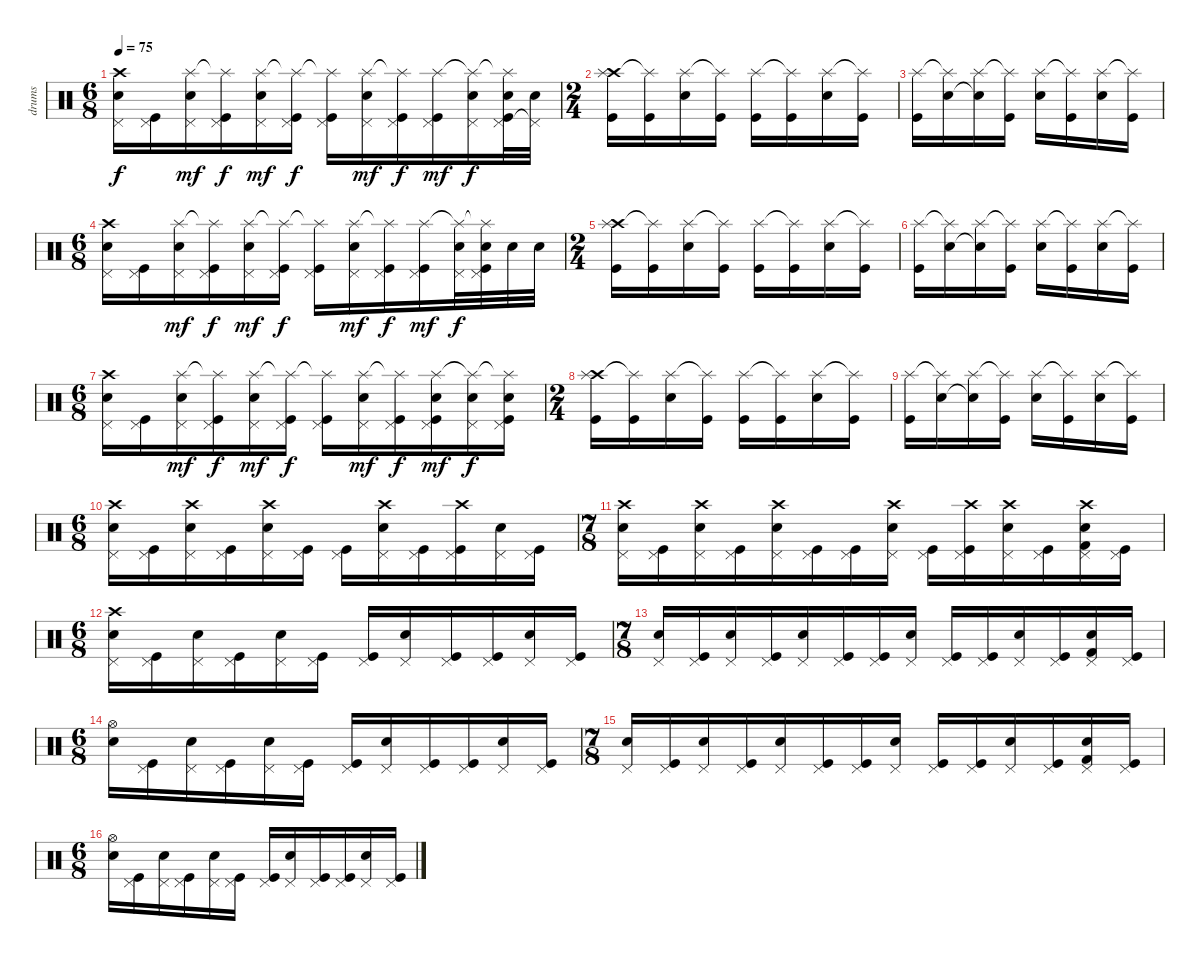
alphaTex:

\track ("drums" "drums") {instrument percussion}
\staff {score}
\articulation defaults
\ts (6 8)
\tempo 75
\clef neutral
\ks c
("Pedal Hi-Hat (hit)" "Electric Snare (hit)" "Crash high (hit)").16{dy f} ("Pedal Hi-Hat (hit)" "Kick (hit)").16 ("Pedal Hi-Hat (hit)" "Splash (hit)" "Electric Snare (hit)").16{dy mf} ("Pedal Hi-Hat (hit)" "Splash (hit)"{t} "Kick (hit)").16{dy f} ("Pedal Hi-Hat (hit)" "Splash (hit)" "Electric Snare (hit)").16{dy mf} ("Pedal Hi-Hat (hit)" "Splash (hit)"{t} "Kick (hit)").16{dy f} ("Pedal Hi-Hat (hit)" "Splash (hit)"{t} "Kick (hit)").16 ("Pedal Hi-Hat (hit)" "Splash (hit)" "Electric Snare (hit)").16{dy mf} ("Pedal Hi-Hat (hit)" "Splash (hit)"{t} "Kick (hit)").16{dy f} ("Pedal Hi-Hat (hit)" "Splash (hit)" "Kick (hit)").16{dy mf} ("Pedal Hi-Hat (hit)" "Splash (hit)"{t} "Electric Snare (hit)").16{dy f} ("Pedal Hi-Hat (hit)" "Splash (hit)"{t} "Electric Snare (hit)" "Kick (hit)").32 ("Pedal Hi-Hat (hit)"{t} "Electric Snare (hit)").32 |
\ts (2 4)
("Crash high (hit)" "Splash (hit)" "Kick (hit)").16 ("Splash (hit)"{t} "Kick (hit)").16 ("Splash (hit)" "Electric Snare (hit)").16 ("Splash (hit)"{t} "Kick (hit)").16 ("Splash (hit)" "Kick (hit)").16 ("Splash (hit)"{t} "Kick (hit)").16 ("Splash (hit)" "Electric Snare (hit)").16 ("Splash (hit)"{t} "Kick (hit)").16 |
("Splash (hit)" "Kick (hit)").16 ("Splash (hit)"{t} "Electric Snare (hit)").16 ("Splash (hit)" "Electric Snare (hit)"{t}).16 ("Splash (hit)"{t} "Kick (hit)").16 ("Splash (hit)" "Electric Snare (hit)").16 ("Splash (hit)"{t} "Kick (hit)").16 ("Splash (hit)" "Electric Snare (hit)").16 ("Splash (hit)"{t} "Kick (hit)").16 |
\ts (6 8)
("Pedal Hi-Hat (hit)" "Electric Snare (hit)" "Crash high (hit)").16 ("Pedal Hi-Hat (hit)" "Kick (hit)").16 ("Pedal Hi-Hat (hit)" "Splash (hit)" "Electric Snare (hit)").16{dy mf} ("Pedal Hi-Hat (hit)" "Splash (hit)"{t} "Kick (hit)").16{dy f} ("Pedal Hi-Hat (hit)" "Splash (hit)" "Electric Snare (hit)").16{dy mf} ("Pedal Hi-Hat (hit)" "Splash (hit)"{t} "Kick (hit)").16{dy f} ("Pedal Hi-Hat (hit)" "Splash (hit)"{t} "Kick (hit)").16 ("Pedal Hi-Hat (hit)" "Splash (hit)" "Electric Snare (hit)").16{dy mf} ("Pedal Hi-Hat (hit)" "Splash (hit)"{t} "Kick (hit)").16{dy f} ("Pedal Hi-Hat (hit)" "Splash (hit)" "Kick (hit)").16{dy mf} ("Pedal Hi-Hat (hit)" "Splash (hit)"{t} "Electric Snare (hit)").32{dy f} ("Pedal Hi-Hat (hit)" "Splash (hit)"{t} "Electric Snare (hit)" "Kick (hit)").32 "Electric Snare (hit)".32 "Electric Snare (hit)".32 |
\ts (2 4)
("Crash high (hit)" "Splash (hit)" "Kick (hit)").16 ("Splash (hit)"{t} "Kick (hit)").16 ("Splash (hit)" "Electric Snare (hit)").16 ("Splash (hit)"{t} "Kick (hit)").16 ("Splash (hit)" "Kick (hit)").16 ("Splash (hit)"{t} "Kick (hit)").16 ("Splash (hit)" "Electric Snare (hit)").16 ("Splash (hit)"{t} "Kick (hit)").16 |
("Splash (hit)" "Kick (hit)").16 ("Splash (hit)"{t} "Electric Snare (hit)").16 ("Splash (hit)" "Electric Snare (hit)"{t}).16 ("Splash (hit)"{t} "Kick (hit)").16 ("Splash (hit)" "Electric Snare (hit)").16 ("Splash (hit)"{t} "Kick (hit)").16 ("Splash (hit)" "Electric Snare (hit)").16 ("Splash (hit)"{t} "Kick (hit)").16 |
\ts (6 8)
("Pedal Hi-Hat (hit)" "Electric Snare (hit)" "Crash high (hit)").16 ("Pedal Hi-Hat (hit)" "Kick (hit)").16 ("Pedal Hi-Hat (hit)" "Splash (hit)" "Electric Snare (hit)").16{dy mf} ("Pedal Hi-Hat (hit)" "Splash (hit)"{t} "Kick (hit)").16{dy f} ("Pedal Hi-Hat (hit)" "Splash (hit)" "Electric Snare (hit)").16{dy mf} ("Pedal Hi-Hat (hit)" "Splash (hit)"{t} "Kick (hit)").16{dy f} ("Pedal Hi-Hat (hit)" "Splash (hit)"{t} "Kick (hit)").16 ("Pedal Hi-Hat (hit)" "Splash (hit)" "Electric Snare (hit)").16{dy mf} ("Pedal Hi-Hat (hit)" "Splash (hit)"{t} "Kick (hit)").16{dy f} ("Pedal Hi-Hat (hit)" "Splash (hit)" "Electric Snare (hit)" "Kick (hit)").16{dy mf} ("Pedal Hi-Hat (hit)" "Splash (hit)"{t} "Electric Snare (hit)").16{dy f} ("Pedal Hi-Hat (hit)" "Splash (hit)"{t} "Electric Snare (hit)" "Kick (hit)").16 |
\ts (2 4)
("Crash high (hit)" "Splash (hit)" "Kick (hit)").16 ("Splash (hit)"{t} "Kick (hit)").16 ("Splash (hit)" "Electric Snare (hit)").16 ("Splash (hit)"{t} "Kick (hit)").16 ("Splash (hit)" "Kick (hit)").16 ("Splash (hit)"{t} "Kick (hit)").16 ("Splash (hit)" "Electric Snare (hit)").16 ("Splash (hit)"{t} "Kick (hit)").16 |
("Splash (hit)" "Kick (hit)").16 ("Splash (hit)"{t} "Electric Snare (hit)").16 ("Splash (hit)" "Electric Snare (hit)"{t}).16 ("Splash (hit)"{t} "Kick (hit)").16 ("Splash (hit)" "Electric Snare (hit)").16 ("Splash (hit)"{t} "Kick (hit)").16 ("Splash (hit)" "Electric Snare (hit)").16 ("Splash (hit)"{t} "Kick (hit)").16 |
\ts (6 8)
("Pedal Hi-Hat (hit)" "Crash high (hit)" "Electric Snare (hit)").16 ("Pedal Hi-Hat (hit)" "Kick (hit)").16 ("Pedal Hi-Hat (hit)" "Crash high (hit)" "Electric Snare (hit)").16 ("Pedal Hi-Hat (hit)" "Kick (hit)").16 ("Pedal Hi-Hat (hit)" "Crash high (hit)" "Electric Snare (hit)").16 ("Pedal Hi-Hat (hit)" "Kick (hit)").16 ("Pedal Hi-Hat (hit)" "Kick (hit)").16 ("Pedal Hi-Hat (hit)" "Crash high (hit)" "Electric Snare (hit)").16 ("Pedal Hi-Hat (hit)" "Kick (hit)").16 ("Pedal Hi-Hat (hit)" "Crash high (hit)" "Kick (hit)").16 ("Pedal Hi-Hat (hit)" "Electric Snare (hit)").16 ("Pedal Hi-Hat (hit)" "Kick (hit)").16 |
\ts (7 8)
("Pedal Hi-Hat (hit)" "Crash high (hit)" "Electric Snare (hit)").16 ("Pedal Hi-Hat (hit)" "Kick (hit)").16 ("Pedal Hi-Hat (hit)" "Crash high (hit)" "Electric Snare (hit)").16 ("Pedal Hi-Hat (hit)" "Kick (hit)").16 ("Pedal Hi-Hat (hit)" "Crash high (hit)" "Electric Snare (hit)").16 ("Pedal Hi-Hat (hit)" "Kick (hit)").16 ("Pedal Hi-Hat (hit)" "Kick (hit)").16 ("Pedal Hi-Hat (hit)" "Crash high (hit)" "Electric Snare (hit)").16 ("Pedal Hi-Hat (hit)" "Kick (hit)").16 ("Pedal Hi-Hat (hit)" "Crash high (hit)" "Kick (hit)").16 ("Pedal Hi-Hat (hit)" "Crash high (hit)" "Electric Snare (hit)").16 ("Pedal Hi-Hat (hit)" "Kick (hit)").16 ("Pedal Hi-Hat (hit)" "Crash high (hit)" "Electric Snare (hit)" "Kick (hit) 2").16 ("Pedal Hi-Hat (hit)" "Kick (hit)").16 |
\ts (6 8)
("Pedal Hi-Hat (hit)" "Electric Snare (hit)" "Crash high (hit)").16 ("Pedal Hi-Hat (hit)" "Kick (hit)").16 ("Pedal Hi-Hat (hit)" "Electric Snare (hit)").16 ("Pedal Hi-Hat (hit)" "Kick (hit)").16 ("Pedal Hi-Hat (hit)" "Electric Snare (hit)").16 ("Pedal Hi-Hat (hit)" "Kick (hit)").16 ("Pedal Hi-Hat (hit)" "Kick (hit)").16 ("Pedal Hi-Hat (hit)" "Electric Snare (hit)").16 ("Pedal Hi-Hat (hit)" "Kick (hit)").16 ("Pedal Hi-Hat (hit)" "Kick (hit)").16 ("Pedal Hi-Hat (hit)" "Electric Snare (hit)").16 ("Pedal Hi-Hat (hit)" "Kick (hit)").16 |
\ts (7 8)
("Pedal Hi-Hat (hit)" "Electric Snare (hit)").16 ("Pedal Hi-Hat (hit)" "Kick (hit)").16 ("Pedal Hi-Hat (hit)" "Electric Snare (hit)").16 ("Pedal Hi-Hat (hit)" "Kick (hit)").16 ("Pedal Hi-Hat (hit)" "Electric Snare (hit)").16 ("Pedal Hi-Hat (hit)" "Kick (hit)").16 ("Pedal Hi-Hat (hit)" "Kick (hit)").16 ("Pedal Hi-Hat (hit)" "Electric Snare (hit)").16 ("Pedal Hi-Hat (hit)" "Kick (hit)").16 ("Pedal Hi-Hat (hit)" "Kick (hit)").16 ("Pedal Hi-Hat (hit)" "Electric Snare (hit)").16 ("Pedal Hi-Hat (hit)" "Kick (hit)").16 ("Pedal Hi-Hat (hit)" "Electric Snare (hit)" "Kick (hit) 2").16 ("Pedal Hi-Hat (hit)" "Kick (hit)").16 |
\ts (6 8)
("Hi-Hat (open)" "Electric Snare (hit)").16 ("Pedal Hi-Hat (hit)" "Kick (hit)").16 ("Pedal Hi-Hat (hit)" "Electric Snare (hit)").16 ("Pedal Hi-Hat (hit)" "Kick (hit)").16 ("Pedal Hi-Hat (hit)" "Electric Snare (hit)").16 ("Pedal Hi-Hat (hit)" "Kick (hit)").16 ("Pedal Hi-Hat (hit)" "Kick (hit)").16 ("Pedal Hi-Hat (hit)" "Electric Snare (hit)").16 ("Pedal Hi-Hat (hit)" "Kick (hit)").16 ("Pedal Hi-Hat (hit)" "Kick (hit)").16 ("Pedal Hi-Hat (hit)" "Electric Snare (hit)").16 ("Pedal Hi-Hat (hit)" "Kick (hit)").16 |
\ts (7 8)
("Pedal Hi-Hat (hit)" "Electric Snare (hit)").16 ("Pedal Hi-Hat (hit)" "Kick (hit)").16 ("Pedal Hi-Hat (hit)" "Electric Snare (hit)").16 ("Pedal Hi-Hat (hit)" "Kick (hit)").16 ("Pedal Hi-Hat (hit)" "Electric Snare (hit)").16 ("Pedal Hi-Hat (hit)" "Kick (hit)").16 ("Pedal Hi-Hat (hit)" "Kick (hit)").16 ("Pedal Hi-Hat (hit)" "Electric Snare (hit)").16 ("Pedal Hi-Hat (hit)" "Kick (hit)").16 ("Pedal Hi-Hat (hit)" "Kick (hit)").16 ("Pedal Hi-Hat (hit)" "Electric Snare (hit)").16 ("Pedal Hi-Hat (hit)" "Kick (hit)").16 ("Pedal Hi-Hat (hit)" "Electric Snare (hit)" "Kick (hit) 2").16 ("Pedal Hi-Hat (hit)" "Kick (hit)").16 |
\ts (6 8)
("Hi-Hat (open)" "Electric Snare (hit)").16 ("Pedal Hi-Hat (hit)" "Kick (hit)").16 ("Pedal Hi-Hat (hit)" "Electric Snare (hit)").16 ("Pedal Hi-Hat (hit)" "Kick (hit)").16 ("Pedal Hi-Hat (hit)" "Electric Snare (hit)").16 ("Pedal Hi-Hat (hit)" "Kick (hit)").16 ("Pedal Hi-Hat (hit)" "Kick (hit)").16 ("Pedal Hi-Hat (hit)" "Electric Snare (hit)").16 ("Pedal Hi-Hat (hit)" "Kick (hit)").16 ("Pedal Hi-Hat (hit)" "Kick (hit)").16 ("Pedal Hi-Hat (hit)" "Electric Snare (hit)").16 ("Pedal Hi-Hat (hit)" "Kick (hit)").16
